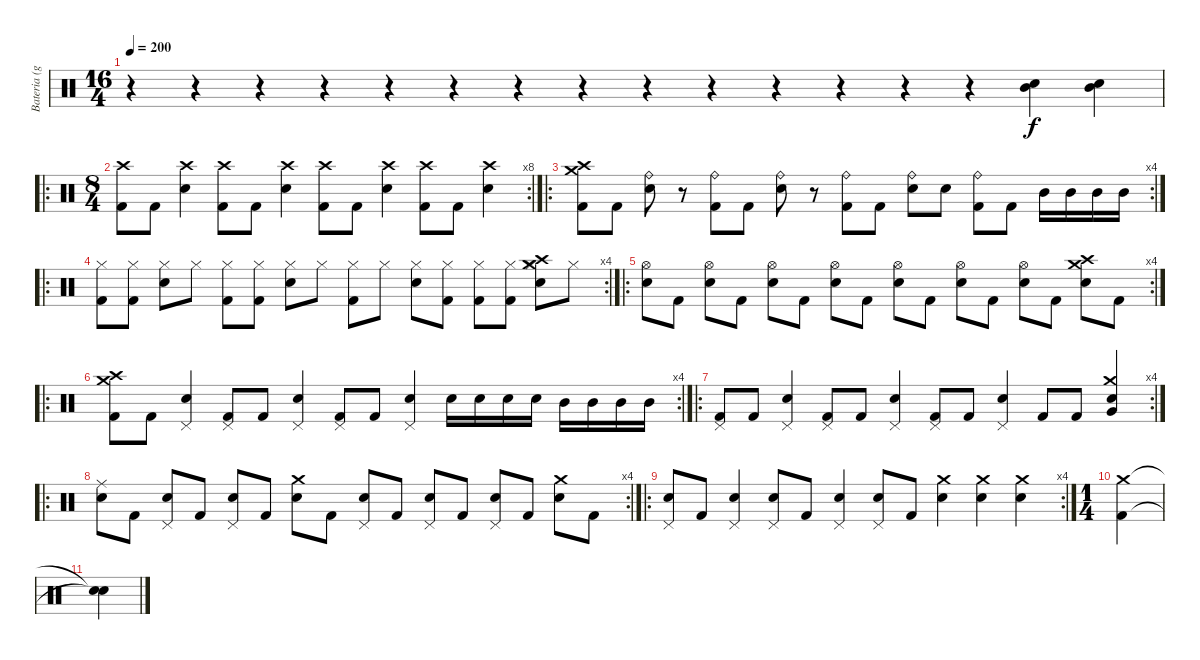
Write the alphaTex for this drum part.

\track ("Bateria (guille)" "Bateria (g") {instrument percussion}
\staff {score}
\articulation defaults
\ts (16 4)
\tempo 200
\clef neutral
\ks c
r.4{dy f} r.4 r.4 r.4 r.4 r.4 r.4 r.4 r.4 r.4 r.4 r.4 r.4 r.4 ("Electric Snare (hit)" "Mid Tom (hit)").4 ("Electric Snare (hit)" "Mid Tom (hit)").4 |
\ro
\rc 8
\ts (8 4)
("Crash high (hit)" "Kick (hit) 2").8 "Kick (hit) 2".8 ("Crash high (hit)" "Electric Snare (hit)").4 ("Crash high (hit)" "Kick (hit) 2").8 "Kick (hit) 2".8 ("Crash high (hit)" "Electric Snare (hit)").4 ("Crash high (hit)" "Kick (hit) 2").8 "Kick (hit) 2".8 ("Crash high (hit)" "Electric Snare (hit)").4 ("Crash high (hit)" "Kick (hit) 2").8 "Kick (hit) 2".8 ("Crash high (hit)" "Electric Snare (hit)").4 |
\ro
\rc 4
("Crash medium (hit)" "Crash high (hit)" "Kick (hit) 2").8 "Kick (hit) 2".8 ("Ride (bell)" "Electric Snare (hit)").8 r.8 ("Ride (bell)" "Kick (hit) 2").8 "Kick (hit) 2".8 ("Ride (bell)" "Electric Snare (hit)").8 r.8 ("Ride (bell)" "Kick (hit) 2").8 "Kick (hit) 2".8 ("Ride (bell)" "Electric Snare (hit)").8 "Electric Snare (hit)".8 ("Ride (bell)" "Kick (hit) 2").8 "Kick (hit) 2".8 "Mid Tom (hit)".16 "Mid Tom (hit)".16 "Mid Tom (hit)".16 "Mid Tom (hit)".16 |
\ro
\rc 4
("Hi-Hat (closed)" "Kick (hit) 2").8 ("Hi-Hat (closed)" "Kick (hit) 2").8 ("Hi-Hat (closed)" "Electric Snare (hit)").8 "Hi-Hat (closed)".8 ("Hi-Hat (closed)" "Kick (hit) 2").8 ("Hi-Hat (closed)" "Kick (hit) 2").8 ("Hi-Hat (closed)" "Electric Snare (hit)").8 "Hi-Hat (closed)".8 ("Hi-Hat (closed)" "Kick (hit) 2").8 "Hi-Hat (closed)".8 ("Hi-Hat (closed)" "Electric Snare (hit)").8 ("Hi-Hat (closed)" "Kick (hit) 2").8 ("Hi-Hat (closed)" "Kick (hit) 2").8 ("Hi-Hat (closed)" "Kick (hit) 2").8 ("Hi-Hat (closed)" "Electric Snare (hit)" "Crash medium (hit)" "Crash high (hit)").8 "Hi-Hat (closed)".8 |
\ro
\rc 4
("Electric Snare (hit)" "Hi-Hat (open)").8 "Kick (hit) 2".8 ("Electric Snare (hit)" "Hi-Hat (open)").8 "Kick (hit) 2".8 ("Electric Snare (hit)" "Hi-Hat (open)").8 "Kick (hit) 2".8 ("Electric Snare (hit)" "Hi-Hat (open)").8 "Kick (hit) 2".8 ("Electric Snare (hit)" "Hi-Hat (open)").8 "Kick (hit) 2".8 ("Electric Snare (hit)" "Hi-Hat (open)").8 "Kick (hit) 2".8 ("Electric Snare (hit)" "Hi-Hat (open)").8 "Kick (hit) 2".8 ("Electric Snare (hit)" "Crash medium (hit)" "Crash high (hit)").8 "Kick (hit) 2".8 |
\ro
\rc 4
("Crash medium (hit)" "Crash high (hit)" "Kick (hit) 2").8 "Kick (hit) 2".8 ("Pedal Hi-Hat (hit)" "Electric Snare (hit)").4 ("Pedal Hi-Hat (hit)" "Kick (hit) 2").8 "Kick (hit) 2".8 ("Pedal Hi-Hat (hit)" "Electric Snare (hit)").4 ("Pedal Hi-Hat (hit)" "Kick (hit) 2").8 "Kick (hit) 2".8 ("Pedal Hi-Hat (hit)" "Electric Snare (hit)").4 "Electric Snare (hit)".16 "Electric Snare (hit)".16 "Electric Snare (hit)".16 "Electric Snare (hit)".16 "Mid Tom (hit)".16 "Mid Tom (hit)".16 "Mid Tom (hit)".16 "Mid Tom (hit)".16 |
\ro
\rc 4
("Pedal Hi-Hat (hit)" "Kick (hit) 2").8 "Kick (hit) 2".8 ("Pedal Hi-Hat (hit)" "Electric Snare (hit)").4 ("Pedal Hi-Hat (hit)" "Kick (hit) 2").8 "Kick (hit) 2".8 ("Pedal Hi-Hat (hit)" "Electric Snare (hit)").4 ("Pedal Hi-Hat (hit)" "Kick (hit) 2").8 "Kick (hit) 2".8 ("Pedal Hi-Hat (hit)" "Electric Snare (hit)").4 "Kick (hit) 2".8 "Kick (hit) 2".8 ("Crash medium (hit)" "Electric Snare (hit)" "Very Low Tom (hit)").4 |
\ro
\rc 4
("Ride (middle)" "Snare (hit) 2").8 "Kick (hit) 2".8 ("Pedal Hi-Hat (hit)" "Snare (hit) 2").8 "Kick (hit) 2".8 ("Pedal Hi-Hat (hit)" "Snare (hit) 2").8 "Kick (hit) 2".8 ("Crash medium (hit)" "Snare (hit) 2").8 "Kick (hit) 2".8 ("Pedal Hi-Hat (hit)" "Snare (hit) 2").8 "Kick (hit) 2".8 ("Pedal Hi-Hat (hit)" "Snare (hit) 2").8 "Kick (hit) 2".8 ("Pedal Hi-Hat (hit)" "Snare (hit) 2").8 "Kick (hit) 2".8 ("Crash medium (hit)" "Snare (hit) 2").8 "Kick (hit) 2".8 |
\ro
\rc 4
("Pedal Hi-Hat (hit)" "Electric Snare (hit)").8 "Kick (hit) 2".8 ("Pedal Hi-Hat (hit)" "Electric Snare (hit)").4 ("Pedal Hi-Hat (hit)" "Electric Snare (hit)").8 "Kick (hit) 2".8 ("Pedal Hi-Hat (hit)" "Electric Snare (hit)").4 ("Pedal Hi-Hat (hit)" "Electric Snare (hit)").8 "Kick (hit) 2".8 ("Snare (hit) 2" "Crash medium (hit)").4 ("Snare (hit) 2" "Crash medium (hit)").4 ("Snare (hit) 2" "Crash medium (hit)").4 |
\ts (1 4)
("Crash medium (hit)" "Kick (hit) 2").4 |
("Snare (hit)"{t} "Snare (hit)"{t}).4
